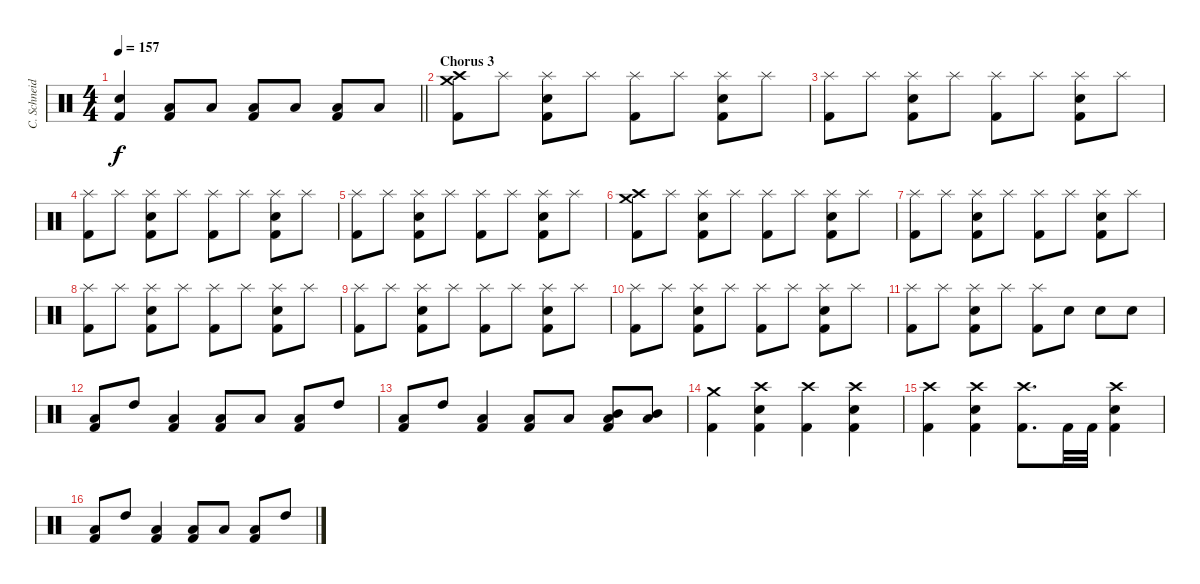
\track ("C. Schneider" "C. Schneid") {instrument percussion}
\staff {score}
\articulation defaults
\ts (4 4)
\tempo 157
\clef neutral
\barLineRight lightlight
\ks c
("Kick (hit) 2" "Electric Snare (hit)").4{dy f} ("Kick (hit) 2" "Low Tom (hit)").8 "Low Tom (hit)".8 ("Kick (hit) 2" "Low Tom (hit)").8 "Low Tom (hit)".8 ("Kick (hit) 2" "Low Tom (hit)").8 "Low Tom (hit)".8 |
\section ("" "Chorus 3")
("Kick (hit) 2" "Crash high (hit)" "Crash medium (hit)").8 "Splash (hit)".8 ("Kick (hit) 2" "Electric Snare (hit)" "Splash (hit)").8 "Splash (hit)".8 ("Kick (hit) 2" "Splash (hit)").8 "Splash (hit)".8 ("Kick (hit) 2" "Electric Snare (hit)" "Splash (hit)").8 "Splash (hit)".8 |
("Kick (hit) 2" "Splash (hit)").8 "Splash (hit)".8 ("Kick (hit) 2" "Electric Snare (hit)" "Splash (hit)").8 "Splash (hit)".8 ("Kick (hit) 2" "Splash (hit)").8 "Splash (hit)".8 ("Kick (hit) 2" "Electric Snare (hit)" "Splash (hit)").8 "Splash (hit)".8 |
("Kick (hit) 2" "Splash (hit)").8 "Splash (hit)".8 ("Kick (hit) 2" "Electric Snare (hit)" "Splash (hit)").8 "Splash (hit)".8 ("Kick (hit) 2" "Splash (hit)").8 "Splash (hit)".8 ("Kick (hit) 2" "Electric Snare (hit)" "Splash (hit)").8 "Splash (hit)".8 |
("Kick (hit) 2" "Splash (hit)").8 "Splash (hit)".8 ("Kick (hit) 2" "Electric Snare (hit)" "Splash (hit)").8 "Splash (hit)".8 ("Kick (hit) 2" "Splash (hit)").8 "Splash (hit)".8 ("Kick (hit) 2" "Electric Snare (hit)" "Splash (hit)").8 "Splash (hit)".8 |
("Kick (hit) 2" "Crash high (hit)" "Crash medium (hit)").8 "Splash (hit)".8 ("Kick (hit) 2" "Electric Snare (hit)" "Splash (hit)").8 "Splash (hit)".8 ("Kick (hit) 2" "Splash (hit)").8 "Splash (hit)".8 ("Kick (hit) 2" "Electric Snare (hit)" "Splash (hit)").8 "Splash (hit)".8 |
("Kick (hit) 2" "Splash (hit)").8 "Splash (hit)".8 ("Kick (hit) 2" "Electric Snare (hit)" "Splash (hit)").8 "Splash (hit)".8 ("Kick (hit) 2" "Splash (hit)").8 "Splash (hit)".8 ("Kick (hit) 2" "Electric Snare (hit)" "Splash (hit)").8 "Splash (hit)".8 |
("Kick (hit) 2" "Splash (hit)").8 "Splash (hit)".8 ("Kick (hit) 2" "Electric Snare (hit)" "Splash (hit)").8 "Splash (hit)".8 ("Kick (hit) 2" "Splash (hit)").8 "Splash (hit)".8 ("Kick (hit) 2" "Electric Snare (hit)" "Splash (hit)").8 "Splash (hit)".8 |
("Kick (hit) 2" "Splash (hit)").8 "Splash (hit)".8 ("Kick (hit) 2" "Electric Snare (hit)" "Splash (hit)").8 "Splash (hit)".8 ("Kick (hit) 2" "Splash (hit)").8 "Splash (hit)".8 ("Kick (hit) 2" "Electric Snare (hit)" "Splash (hit)").8 "Splash (hit)".8 |
("Kick (hit) 2" "Splash (hit)").8 "Splash (hit)".8 ("Kick (hit) 2" "Electric Snare (hit)" "Splash (hit)").8 "Splash (hit)".8 ("Kick (hit) 2" "Splash (hit)").8 "Splash (hit)".8 ("Kick (hit) 2" "Electric Snare (hit)" "Splash (hit)").8 "Splash (hit)".8 |
("Kick (hit) 2" "Splash (hit)").8 "Splash (hit)".8 ("Kick (hit) 2" "Electric Snare (hit)" "Splash (hit)").8 "Splash (hit)".8 ("Kick (hit) 2" "Splash (hit)").8 "Electric Snare (hit)".8 "Electric Snare (hit)".8 "Electric Snare (hit)".8 |
("Kick (hit) 2" "Low Tom (hit)").8 "High Tom (hit)".8 ("Kick (hit) 2" "Low Tom (hit)").4 ("Kick (hit) 2" "Low Tom (hit)").8 "Low Tom (hit)".8 ("Kick (hit) 2" "Low Tom (hit)").8 "High Tom (hit)".8 |
("Kick (hit) 2" "Low Tom (hit)").8 "High Tom (hit)".8 ("Kick (hit) 2" "Low Tom (hit)").4 ("Kick (hit) 2" "Low Tom (hit)").8 "Low Tom (hit)".8 ("Kick (hit) 2" "Low Tom (hit)" "Mid Tom (hit)").8 ("Low Tom (hit)" "Mid Tom (hit)").8 |
("Kick (hit) 2" "Crash medium (hit)").4 ("Kick (hit) 2" "Electric Snare (hit)" "Crash high (hit)").4 ("Kick (hit) 2" "Crash high (hit)").4 ("Kick (hit) 2" "Electric Snare (hit)" "Crash high (hit)").4 |
("Kick (hit) 2" "Crash high (hit)").4 ("Kick (hit) 2" "Electric Snare (hit)" "Crash high (hit)").4 ("Kick (hit) 2" "Crash high (hit)").8{d} "Kick (hit) 2".32 "Kick (hit) 2".32 ("Kick (hit) 2" "Electric Snare (hit)" "Crash high (hit)").4 |
("Kick (hit) 2" "Low Tom (hit)").8 "High Tom (hit)".8 ("Kick (hit) 2" "Low Tom (hit)").4 ("Kick (hit) 2" "Low Tom (hit)").8 "Low Tom (hit)".8 ("Kick (hit) 2" "Low Tom (hit)").8 "High Tom (hit)".8
